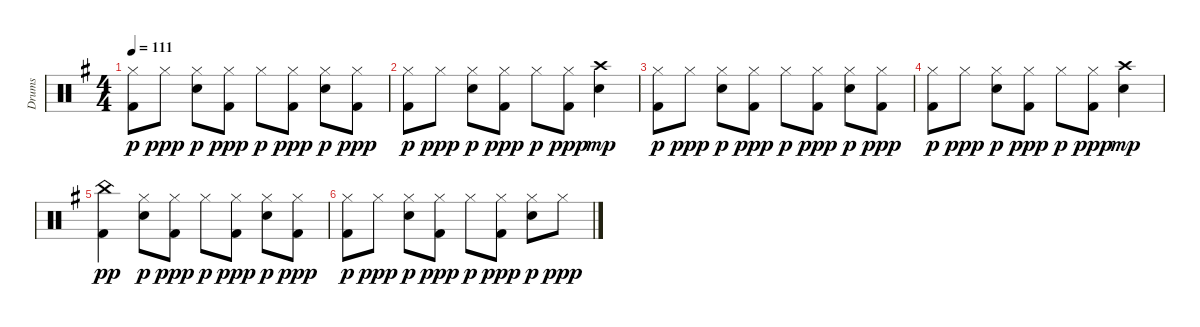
\track ("Drums" "Drums") {instrument percussion}
\staff {score}
\articulation defaults
\ts (4 4)
\tempo 111
\clef neutral
\ks g
("Hi-Hat (closed)" "Kick (hit) 2").8{dy p volume 6} "Hi-Hat (closed)".8{dy ppp} ("Hi-Hat (closed)" "Electric Snare (hit)").8{dy p} ("Kick (hit) 2" "Hi-Hat (closed)").8{dy ppp} "Hi-Hat (closed)".8{dy p} ("Kick (hit) 2" "Hi-Hat (closed)").8{dy ppp} ("Hi-Hat (closed)" "Electric Snare (hit)").8{dy p} ("Kick (hit) 2" "Hi-Hat (closed)").8{dy ppp} |
("Hi-Hat (closed)" "Kick (hit) 2").8{dy p} "Hi-Hat (closed)".8{dy ppp} ("Hi-Hat (closed)" "Electric Snare (hit)").8{dy p} ("Kick (hit) 2" "Hi-Hat (closed)").8{dy ppp} "Hi-Hat (closed)".8{dy p} ("Kick (hit) 2" "Hi-Hat (closed)").8{dy ppp} ("Crash high (hit)" "Electric Snare (hit)").4{dy mp} |
("Hi-Hat (closed)" "Kick (hit) 2").8{dy p} "Hi-Hat (closed)".8{dy ppp} ("Hi-Hat (closed)" "Electric Snare (hit)").8{dy p} ("Kick (hit) 2" "Hi-Hat (closed)").8{dy ppp} "Hi-Hat (closed)".8{dy p} ("Kick (hit) 2" "Hi-Hat (closed)").8{dy ppp} ("Hi-Hat (closed)" "Electric Snare (hit)").8{dy p} ("Kick (hit) 2" "Hi-Hat (closed)").8{dy ppp} |
("Hi-Hat (closed)" "Kick (hit) 2").8{dy p volume 0} "Hi-Hat (closed)".8{dy ppp} ("Hi-Hat (closed)" "Electric Snare (hit)").8{dy p} ("Kick (hit) 2" "Hi-Hat (closed)").8{dy ppp} "Hi-Hat (closed)".8{dy p} ("Kick (hit) 2" "Hi-Hat (closed)").8{dy ppp} ("Crash high (hit)" "Electric Snare (hit)").4{dy mp} |
("China (hit)" "Kick (hit) 2").4{dy pp} ("Hi-Hat (closed)" "Electric Snare (hit)").8{dy p} ("Kick (hit) 2" "Hi-Hat (closed)").8{dy ppp} "Hi-Hat (closed)".8{dy p} ("Kick (hit) 2" "Hi-Hat (closed)").8{dy ppp} ("Hi-Hat (closed)" "Electric Snare (hit)").8{dy p} ("Kick (hit) 2" "Hi-Hat (closed)").8{dy ppp} |
("Hi-Hat (closed)" "Kick (hit) 2").8{dy p} "Hi-Hat (closed)".8{dy ppp} ("Hi-Hat (closed)" "Electric Snare (hit)").8{dy p} ("Kick (hit) 2" "Hi-Hat (closed)").8{dy ppp} "Hi-Hat (closed)".8{dy p} ("Kick (hit) 2" "Hi-Hat (closed)").8{dy ppp} ("Hi-Hat (closed)" "Electric Snare (hit)").8{dy p} "Hi-Hat (closed)".8{dy ppp}
